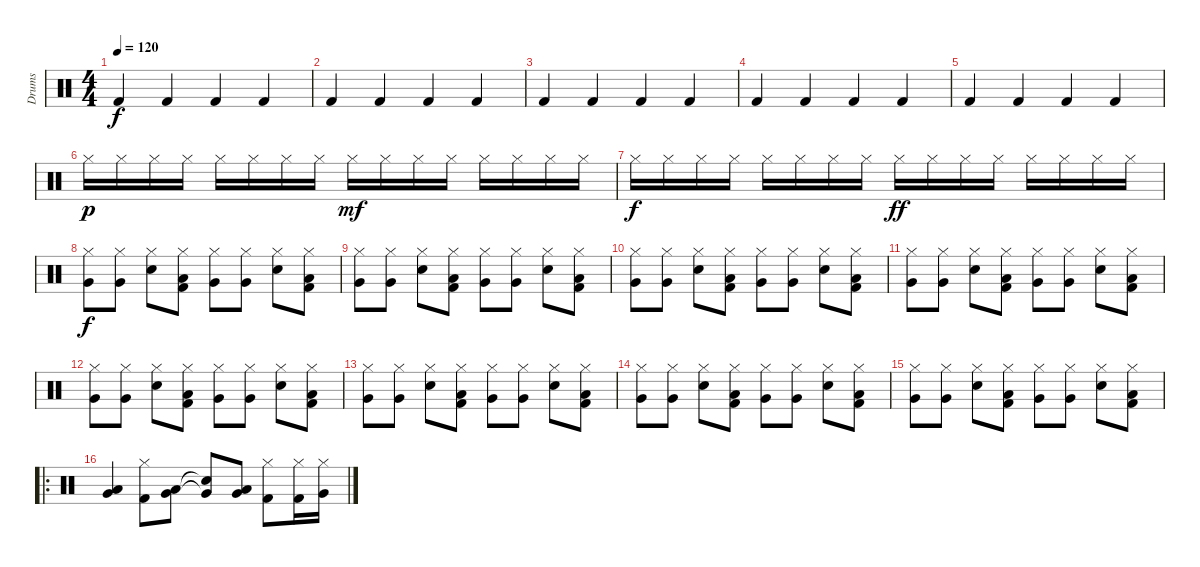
\track ("Drums" "Drums") {instrument percussion}
\staff {score}
\articulation defaults
\ts (4 4)
\tempo 120
\clef neutral
\ks c "Kick (hit) 2".4{dy f} "Kick (hit) 2".4 "Kick (hit) 2".4 "Kick (hit) 2".4
|
"Kick (hit) 2".4 "Kick (hit) 2".4 "Kick (hit) 2".4 "Kick (hit) 2".4 |
"Kick (hit) 2".4 "Kick (hit) 2".4 "Kick (hit) 2".4 "Kick (hit) 2".4 |
"Kick (hit) 2".4 "Kick (hit) 2".4 "Kick (hit) 2".4 "Kick (hit) 2".4 |
"Kick (hit) 2".4 "Kick (hit) 2".4 "Kick (hit) 2".4 "Kick (hit) 2".4 |
"Hi-Hat (closed)".16{dy p} "Hi-Hat (closed)".16 "Hi-Hat (closed)".16 "Hi-Hat (closed)".16 "Hi-Hat (closed)".16 "Hi-Hat (closed)".16 "Hi-Hat (closed)".16 "Hi-Hat (closed)".16 "Hi-Hat (closed)".16{dy mf} "Hi-Hat (closed)".16 "Hi-Hat (closed)".16 "Hi-Hat (closed)".16 "Hi-Hat (closed)".16 "Hi-Hat (closed)".16 "Hi-Hat (closed)".16 "Hi-Hat (closed)".16 |
"Hi-Hat (closed)".16{dy f} "Hi-Hat (closed)".16 "Hi-Hat (closed)".16 "Hi-Hat (closed)".16 "Hi-Hat (closed)".16 "Hi-Hat (closed)".16 "Hi-Hat (closed)".16 "Hi-Hat (closed)".16 "Hi-Hat (closed)".16{dy ff} "Hi-Hat (closed)".16 "Hi-Hat (closed)".16 "Hi-Hat (closed)".16 "Hi-Hat (closed)".16 "Hi-Hat (closed)".16 "Hi-Hat (closed)".16 "Hi-Hat (closed)".16 |
("Very Low Tom (hit)" "Hi-Hat (closed)").8{dy f} ("Very Low Tom (hit)" "Hi-Hat (closed)").8 ("Snare (hit) 2" "Hi-Hat (closed)").8 ("Low Floor Tom (hit)" "Kick (hit) 2" "Hi-Hat (closed)").8 ("Very Low Tom (hit)" "Hi-Hat (closed)").8 ("Very Low Tom (hit)" "Hi-Hat (closed)").8 ("Snare (hit) 2" "Hi-Hat (closed)").8 ("Low Floor Tom (hit)" "Kick (hit) 2" "Hi-Hat (closed)").8 |
("Very Low Tom (hit)" "Hi-Hat (closed)").8 ("Very Low Tom (hit)" "Hi-Hat (closed)").8 ("Snare (hit) 2" "Hi-Hat (closed)").8 ("Low Floor Tom (hit)" "Kick (hit) 2" "Hi-Hat (closed)").8 ("Very Low Tom (hit)" "Hi-Hat (closed)").8 ("Very Low Tom (hit)" "Hi-Hat (closed)").8 ("Snare (hit) 2" "Hi-Hat (closed)").8 ("Low Floor Tom (hit)" "Kick (hit) 2" "Hi-Hat (closed)").8 |
("Very Low Tom (hit)" "Hi-Hat (closed)").8 ("Very Low Tom (hit)" "Hi-Hat (closed)").8 ("Snare (hit) 2" "Hi-Hat (closed)").8 ("Low Floor Tom (hit)" "Kick (hit) 2" "Hi-Hat (closed)").8 ("Very Low Tom (hit)" "Hi-Hat (closed)").8 ("Very Low Tom (hit)" "Hi-Hat (closed)").8 ("Snare (hit) 2" "Hi-Hat (closed)").8 ("Low Floor Tom (hit)" "Kick (hit) 2" "Hi-Hat (closed)").8 |
("Very Low Tom (hit)" "Hi-Hat (closed)").8 ("Very Low Tom (hit)" "Hi-Hat (closed)").8 ("Snare (hit) 2" "Hi-Hat (closed)").8 ("Low Floor Tom (hit)" "Kick (hit) 2" "Hi-Hat (closed)").8 ("Very Low Tom (hit)" "Hi-Hat (closed)").8 ("Very Low Tom (hit)" "Hi-Hat (closed)").8 ("Snare (hit) 2" "Hi-Hat (closed)").8 ("Low Floor Tom (hit)" "Kick (hit) 2" "Hi-Hat (closed)").8 |
("Very Low Tom (hit)" "Hi-Hat (closed)").8 ("Very Low Tom (hit)" "Hi-Hat (closed)").8 ("Snare (hit) 2" "Hi-Hat (closed)").8 ("Low Floor Tom (hit)" "Kick (hit) 2" "Hi-Hat (closed)").8 ("Very Low Tom (hit)" "Hi-Hat (closed)").8 ("Very Low Tom (hit)" "Hi-Hat (closed)").8 ("Snare (hit) 2" "Hi-Hat (closed)").8 ("Low Floor Tom (hit)" "Kick (hit) 2" "Hi-Hat (closed)").8 |
("Very Low Tom (hit)" "Hi-Hat (closed)").8 ("Very Low Tom (hit)" "Hi-Hat (closed)").8 ("Snare (hit) 2" "Hi-Hat (closed)").8 ("Low Floor Tom (hit)" "Kick (hit) 2" "Hi-Hat (closed)").8 ("Very Low Tom (hit)" "Hi-Hat (closed)").8 ("Very Low Tom (hit)" "Hi-Hat (closed)").8 ("Snare (hit) 2" "Hi-Hat (closed)").8 ("Low Floor Tom (hit)" "Kick (hit) 2" "Hi-Hat (closed)").8 |
("Very Low Tom (hit)" "Hi-Hat (closed)").8 ("Very Low Tom (hit)" "Hi-Hat (closed)").8 ("Snare (hit) 2" "Hi-Hat (closed)").8 ("Low Floor Tom (hit)" "Kick (hit) 2" "Hi-Hat (closed)").8 ("Very Low Tom (hit)" "Hi-Hat (closed)").8 ("Very Low Tom (hit)" "Hi-Hat (closed)").8 ("Snare (hit) 2" "Hi-Hat (closed)").8 ("Low Floor Tom (hit)" "Kick (hit) 2" "Hi-Hat (closed)").8 |
("Very Low Tom (hit)" "Hi-Hat (closed)").8 ("Very Low Tom (hit)" "Hi-Hat (closed)").8 ("Snare (hit) 2" "Hi-Hat (closed)").8 ("Low Floor Tom (hit)" "Kick (hit) 2" "Hi-Hat (closed)").8 ("Very Low Tom (hit)" "Hi-Hat (closed)").8 ("Very Low Tom (hit)" "Hi-Hat (closed)").8 ("Snare (hit) 2" "Hi-Hat (closed)").8 ("Low Floor Tom (hit)" "Kick (hit) 2" "Hi-Hat (closed)").8 |
\ro
("Low Floor Tom (hit)" "Very Low Tom (hit)").4 ("Kick (hit) 2" "Hi-Hat (closed)").8 ("Low Floor Tom (hit)" "Very Low Tom (hit)").8 ("Snare (hit)"{t} "Very Low Tom (hit)"{t}).8 ("Low Floor Tom (hit)" "Very Low Tom (hit)").8 ("Kick (hit) 2" "Hi-Hat (closed)").8 ("Kick (hit) 2" "Hi-Hat (closed)").16 ("Very Low Tom (hit)" "Hi-Hat (closed)").16
